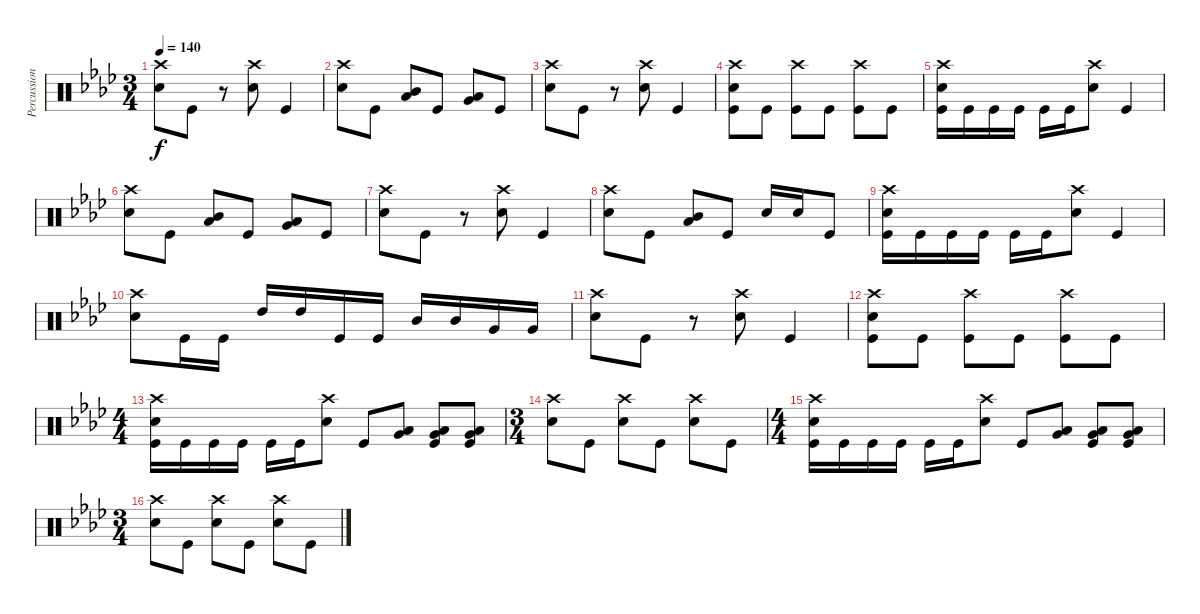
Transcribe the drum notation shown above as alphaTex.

\track ("Percussion" "Percussion") {instrument percussion}
\staff {score}
\articulation defaults
\ts (3 4)
\tempo 140
\clef neutral
\ks ab
("Crash high (hit)" "Snare (hit) 2").8{dy f} "Kick (hit)".8 r.8 ("Snare (hit) 2" "Crash high (hit)").8 "Kick (hit)".4 |
("Crash high (hit)" "Snare (hit) 2").8 "Kick (hit)".8 ("Low Tom (hit)" "Mid Tom (hit)").8 "Kick (hit)".8 ("Very Low Tom (hit)" "Low Floor Tom (hit)").8 "Kick (hit)".8 |
("Crash high (hit)" "Snare (hit) 2").8 "Kick (hit)".8 r.8 ("Snare (hit) 2" "Crash high (hit)").8 "Kick (hit)".4 |
("Crash high (hit)" "Kick (hit)" "Snare (hit) 2").8 "Kick (hit)".8 ("Crash high (hit)" "Kick (hit)").8 "Kick (hit)".8 ("Kick (hit)" "Crash high (hit)").8 "Kick (hit)".8 |
("Crash high (hit)" "Snare (hit) 2" "Kick (hit)").16 "Kick (hit)".16 "Kick (hit)".16 "Kick (hit)".16 "Kick (hit)".16 "Kick (hit)".16 ("Snare (hit) 2" "Crash high (hit)").8 "Kick (hit)".4 |
("Snare (hit) 2" "Crash high (hit)").8 "Kick (hit)".8 ("Low Tom (hit)" "Mid Tom (hit)").8 "Kick (hit)".8 ("Very Low Tom (hit)" "Low Floor Tom (hit)").8 "Kick (hit)".8 |
("Crash high (hit)" "Snare (hit) 2").8 "Kick (hit)".8 r.8 ("Snare (hit) 2" "Crash high (hit)").8 "Kick (hit)".4 |
("Crash high (hit)" "Snare (hit) 2").8 "Kick (hit)".8 ("Low Tom (hit)" "Mid Tom (hit)").8 "Kick (hit)".8 "Snare (hit) 2".16 "Snare (hit) 2".16 "Kick (hit)".8 |
("Crash high (hit)" "Snare (hit) 2" "Kick (hit)").16 "Kick (hit)".16 "Kick (hit)".16 "Kick (hit)".16 "Kick (hit)".16 "Kick (hit)".16 ("Snare (hit) 2" "Crash high (hit)").8 "Kick (hit)".4 |
("Crash high (hit)" "Snare (hit) 2").8 "Kick (hit)".16 "Kick (hit)".16 "High Tom (hit)".16 "High Tom (hit)".16 "Kick (hit)".16 "Kick (hit)".16 "Mid Tom (hit)".16 "Mid Tom (hit)".16 "Very Low Tom (hit)".16 "Very Low Tom (hit)".16 |
("Crash high (hit)" "Snare (hit) 2").8 "Kick (hit)".8 r.8 ("Snare (hit) 2" "Crash high (hit)").8 "Kick (hit)".4 |
("Crash high (hit)" "Kick (hit)" "Snare (hit) 2").8 "Kick (hit)".8 ("Crash high (hit)" "Kick (hit)").8 "Kick (hit)".8 ("Kick (hit)" "Crash high (hit)").8 "Kick (hit)".8 |
\ts (4 4)
("Crash high (hit)" "Snare (hit) 2" "Kick (hit)").16 "Kick (hit)".16 "Kick (hit)".16 "Kick (hit)".16 "Kick (hit)".16 "Kick (hit)".16 ("Snare (hit) 2" "Crash high (hit)").8 "Kick (hit)".8 ("Low Floor Tom (hit)" "Very Low Tom (hit)").8 ("Kick (hit)" "Low Floor Tom (hit)" "Very Low Tom (hit)").8 ("Low Floor Tom (hit)" "Very Low Tom (hit)" "Kick (hit)").8 |
\ts (3 4)
("Snare (hit) 2" "Crash high (hit)").8 "Kick (hit)".8 ("Snare (hit) 2" "Crash high (hit)").8 "Kick (hit)".8 ("Snare (hit) 2" "Crash high (hit)").8 "Kick (hit)".8 |
\ts (4 4)
("Crash high (hit)" "Snare (hit) 2" "Kick (hit)").16 "Kick (hit)".16 "Kick (hit)".16 "Kick (hit)".16 "Kick (hit)".16 "Kick (hit)".16 ("Snare (hit) 2" "Crash high (hit)").8 "Kick (hit)".8 ("Low Floor Tom (hit)" "Very Low Tom (hit)").8 ("Kick (hit)" "Low Floor Tom (hit)" "Very Low Tom (hit)").8 ("Low Floor Tom (hit)" "Very Low Tom (hit)" "Kick (hit)").8 |
\ts (3 4)
("Snare (hit) 2" "Crash high (hit)").8 "Kick (hit)".8 ("Snare (hit) 2" "Crash high (hit)").8 "Kick (hit)".8 ("Snare (hit) 2" "Crash high (hit)").8 "Kick (hit)".8
